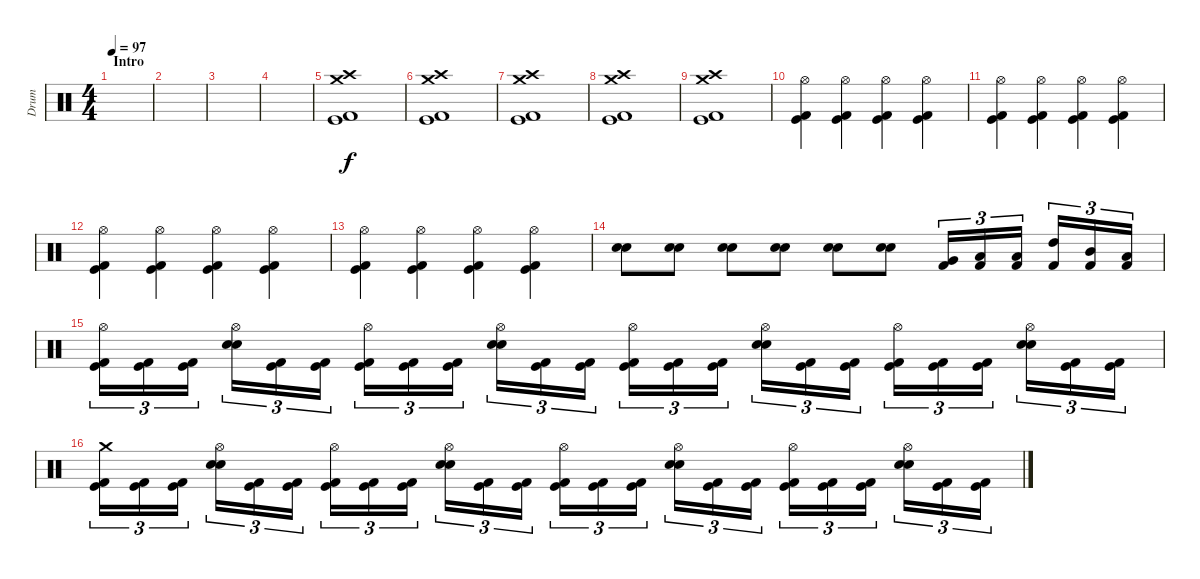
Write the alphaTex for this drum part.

\track ("Drum" "Drum") {instrument percussion}
\staff {score}
\articulation defaults
\ts (4 4)
\section ("" "Intro")
\tempo 97
\clef neutral
\ks c
|
|
|
|
("Crash medium (hit)" "Crash high (hit)" "Kick (hit)" "Kick (hit) 2").1 |
("Crash medium (hit)" "Crash high (hit)" "Kick (hit)" "Kick (hit) 2").1 |
("Crash medium (hit)" "Crash high (hit)" "Kick (hit)" "Kick (hit) 2").1 |
("Crash medium (hit)" "Crash high (hit)" "Kick (hit)" "Kick (hit) 2").1 |
("Crash medium (hit)" "Crash high (hit)" "Kick (hit)" "Kick (hit) 2").1 |
("Hi-Hat (open)" "Kick (hit)" "Kick (hit) 2").4 ("Hi-Hat (open)" "Kick (hit)" "Kick (hit) 2").4 ("Hi-Hat (open)" "Kick (hit)" "Kick (hit) 2").4 ("Hi-Hat (open)" "Kick (hit)" "Kick (hit) 2").4 |
("Hi-Hat (open)" "Kick (hit)" "Kick (hit) 2").4 ("Hi-Hat (open)" "Kick (hit)" "Kick (hit) 2").4 ("Hi-Hat (open)" "Kick (hit)" "Kick (hit) 2").4 ("Hi-Hat (open)" "Kick (hit)" "Kick (hit) 2").4 |
("Hi-Hat (open)" "Kick (hit)" "Kick (hit) 2").4 ("Hi-Hat (open)" "Kick (hit)" "Kick (hit) 2").4 ("Hi-Hat (open)" "Kick (hit)" "Kick (hit) 2").4 ("Hi-Hat (open)" "Kick (hit)" "Kick (hit) 2").4 |
("Hi-Hat (open)" "Kick (hit)" "Kick (hit) 2").4 ("Hi-Hat (open)" "Kick (hit)" "Kick (hit) 2").4 ("Hi-Hat (open)" "Kick (hit)" "Kick (hit) 2").4 ("Hi-Hat (open)" "Kick (hit)" "Kick (hit) 2").4 |
("Electric Snare (hit)" "Snare (hit) 2").8 ("Electric Snare (hit)" "Snare (hit) 2").8 ("Electric Snare (hit)" "Snare (hit) 2").8 ("Electric Snare (hit)" "Snare (hit) 2").8 ("Electric Snare (hit)" "Snare (hit) 2").8 ("Electric Snare (hit)" "Snare (hit) 2").8 ("Very Low Tom (hit)" "Kick (hit) 2").16{tu (3 2)} ("Low Floor Tom (hit)" "Kick (hit) 2").16{tu (3 2)} ("Low Tom (hit)" "Kick (hit) 2").16{tu (3 2)} ("High Tom (hit)" "Kick (hit) 2").16{tu (3 2)} ("Mid Tom (hit)" "Kick (hit) 2").16{tu (3 2)} ("Low Tom (hit)" "Kick (hit) 2").16{tu (3 2)} |
("Hi-Hat (open)" "Kick (hit)" "Kick (hit) 2").16{tu (3 2)} ("Kick (hit)" "Kick (hit) 2").16{tu (3 2)} ("Kick (hit)" "Kick (hit) 2").16{tu (3 2)} ("Hi-Hat (open)" "Electric Snare (hit)" "Snare (hit) 2").16{tu (3 2)} ("Kick (hit)" "Kick (hit) 2").16{tu (3 2)} ("Kick (hit)" "Kick (hit) 2").16{tu (3 2)} ("Hi-Hat (open)" "Kick (hit)" "Kick (hit) 2").16{tu (3 2)} ("Kick (hit)" "Kick (hit) 2").16{tu (3 2)} ("Kick (hit)" "Kick (hit) 2").16{tu (3 2)} ("Hi-Hat (open)" "Electric Snare (hit)" "Snare (hit) 2").16{tu (3 2)} ("Kick (hit)" "Kick (hit) 2").16{tu (3 2)} ("Kick (hit)" "Kick (hit) 2").16{tu (3 2)} ("Hi-Hat (open)" "Kick (hit)" "Kick (hit) 2").16{tu (3 2)} ("Kick (hit)" "Kick (hit) 2").16{tu (3 2)} ("Kick (hit)" "Kick (hit) 2").16{tu (3 2)} ("Hi-Hat (open)" "Electric Snare (hit)" "Snare (hit) 2").16{tu (3 2)} ("Kick (hit)" "Kick (hit) 2").16{tu (3 2)} ("Kick (hit)" "Kick (hit) 2").16{tu (3 2)} ("Hi-Hat (open)" "Kick (hit)" "Kick (hit) 2").16{tu (3 2)} ("Kick (hit)" "Kick (hit) 2").16{tu (3 2)} ("Kick (hit)" "Kick (hit) 2").16{tu (3 2)} ("Hi-Hat (open)" "Electric Snare (hit)" "Snare (hit) 2").16{tu (3 2)} ("Kick (hit)" "Kick (hit) 2").16{tu (3 2)} ("Kick (hit)" "Kick (hit) 2").16{tu (3 2)} |
("Crash medium (hit)" "Kick (hit)" "Kick (hit) 2").16{tu (3 2)} ("Kick (hit)" "Kick (hit) 2").16{tu (3 2)} ("Kick (hit)" "Kick (hit) 2").16{tu (3 2)} ("Hi-Hat (open)" "Electric Snare (hit)" "Snare (hit) 2").16{tu (3 2)} ("Kick (hit)" "Kick (hit) 2").16{tu (3 2)} ("Kick (hit)" "Kick (hit) 2").16{tu (3 2)} ("Hi-Hat (open)" "Kick (hit)" "Kick (hit) 2").16{tu (3 2)} ("Kick (hit)" "Kick (hit) 2").16{tu (3 2)} ("Kick (hit)" "Kick (hit) 2").16{tu (3 2)} ("Hi-Hat (open)" "Electric Snare (hit)" "Snare (hit) 2").16{tu (3 2)} ("Kick (hit)" "Kick (hit) 2").16{tu (3 2)} ("Kick (hit)" "Kick (hit) 2").16{tu (3 2)} ("Hi-Hat (open)" "Kick (hit)" "Kick (hit) 2").16{tu (3 2)} ("Kick (hit)" "Kick (hit) 2").16{tu (3 2)} ("Kick (hit)" "Kick (hit) 2").16{tu (3 2)} ("Hi-Hat (open)" "Electric Snare (hit)" "Snare (hit) 2").16{tu (3 2)} ("Kick (hit)" "Kick (hit) 2").16{tu (3 2)} ("Kick (hit)" "Kick (hit) 2").16{tu (3 2)} ("Hi-Hat (open)" "Kick (hit)" "Kick (hit) 2").16{tu (3 2)} ("Kick (hit)" "Kick (hit) 2").16{tu (3 2)} ("Kick (hit)" "Kick (hit) 2").16{tu (3 2)} ("Hi-Hat (open)" "Electric Snare (hit)" "Snare (hit) 2").16{tu (3 2)} ("Kick (hit)" "Kick (hit) 2").16{tu (3 2)} ("Kick (hit)" "Kick (hit) 2").16{tu (3 2)}
